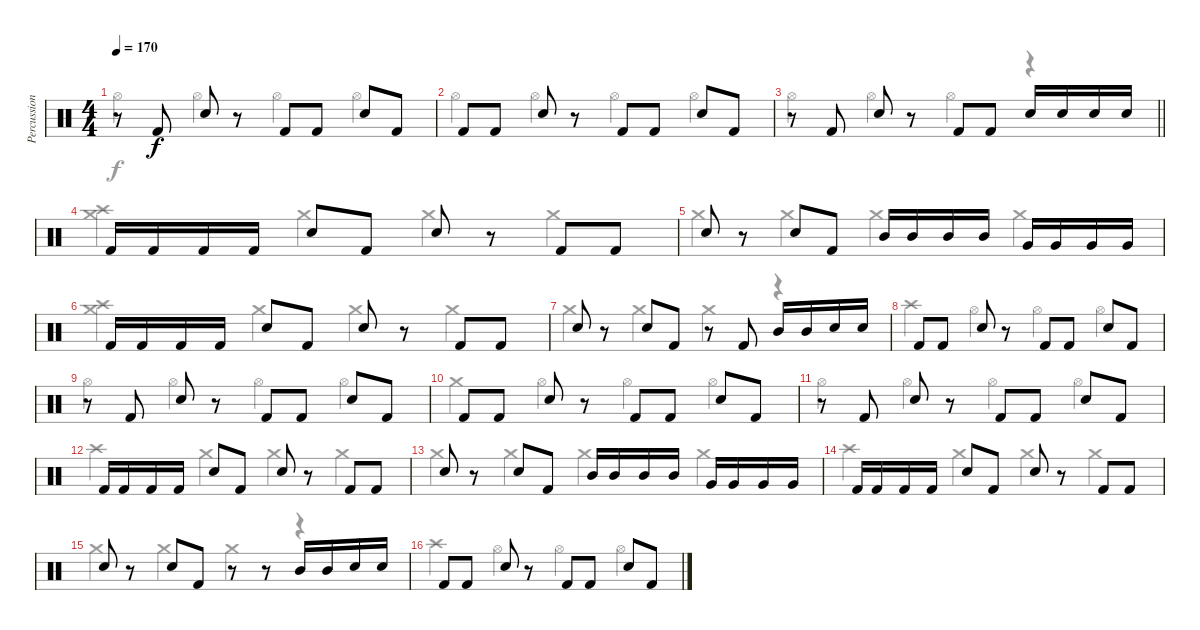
\track ("Percussion" "Percussion") {instrument percussion}
\staff {score}
\articulation defaults
\voice
\ts (4 4)
\tempo 170
\clef neutral
\ks c
r.8{dy f} "Kick (hit) 2".8 "Snare (hit) 2".8 r.8 "Kick (hit) 2".8 "Kick (hit) 2".8 "Snare (hit) 2".8 "Kick (hit) 2".8 |
"Kick (hit) 2".8 "Kick (hit) 2".8 "Snare (hit) 2".8 r.8 "Kick (hit) 2".8 "Kick (hit) 2".8 "Snare (hit) 2".8 "Kick (hit) 2".8 |
\barLineRight lightlight
r.8 "Kick (hit) 2".8 "Snare (hit) 2".8 r.8 "Kick (hit) 2".8 "Kick (hit) 2".8 "Snare (hit) 2".16 "Snare (hit) 2".16 "Snare (hit) 2".16 "Snare (hit) 2".16 |
"Kick (hit) 2".16 "Kick (hit) 2".16 "Kick (hit) 2".16 "Kick (hit) 2".16 "Snare (hit) 2".8 "Kick (hit) 2".8 "Snare (hit) 2".8 r.8 "Kick (hit) 2".8 "Kick (hit) 2".8 |
"Snare (hit) 2".8 r.8 "Snare (hit) 2".8 "Kick (hit) 2".8 "Mid Tom (hit)".16 "Mid Tom (hit)".16 "Mid Tom (hit)".16 "Mid Tom (hit)".16 "Very Low Tom (hit)".16 "Very Low Tom (hit)".16 "Very Low Tom (hit)".16 "Very Low Tom (hit)".16 |
"Kick (hit) 2".16 "Kick (hit) 2".16 "Kick (hit) 2".16 "Kick (hit) 2".16 "Snare (hit) 2".8 "Kick (hit) 2".8 "Snare (hit) 2".8 r.8 "Kick (hit) 2".8 "Kick (hit) 2".8 |
"Snare (hit) 2".8 r.8 "Snare (hit) 2".8 "Kick (hit) 2".8 r.8 "Kick (hit) 2".8 "Mid Tom (hit)".16 "Mid Tom (hit)".16 "Snare (hit) 2".16 "Snare (hit) 2".16 |
"Kick (hit) 2".8 "Kick (hit) 2".8 "Snare (hit) 2".8 r.8 "Kick (hit) 2".8 "Kick (hit) 2".8 "Snare (hit) 2".8 "Kick (hit) 2".8 |
r.8 "Kick (hit) 2".8 "Snare (hit) 2".8 r.8 "Kick (hit) 2".8 "Kick (hit) 2".8 "Snare (hit) 2".8 "Kick (hit) 2".8 |
"Kick (hit) 2".8 "Kick (hit) 2".8 "Snare (hit) 2".8 r.8 "Kick (hit) 2".8 "Kick (hit) 2".8 "Snare (hit) 2".8 "Kick (hit) 2".8 |
r.8 "Kick (hit) 2".8 "Snare (hit) 2".8 r.8 "Kick (hit) 2".8 "Kick (hit) 2".8 "Snare (hit) 2".8 "Kick (hit) 2".8 |
"Kick (hit) 2".16 "Kick (hit) 2".16 "Kick (hit) 2".16 "Kick (hit) 2".16 "Snare (hit) 2".8 "Kick (hit) 2".8 "Snare (hit) 2".8 r.8 "Kick (hit) 2".8 "Kick (hit) 2".8 |
"Snare (hit) 2".8 r.8 "Snare (hit) 2".8 "Kick (hit) 2".8 "Mid Tom (hit)".16 "Mid Tom (hit)".16 "Mid Tom (hit)".16 "Mid Tom (hit)".16 "Very Low Tom (hit)".16 "Very Low Tom (hit)".16 "Very Low Tom (hit)".16 "Very Low Tom (hit)".16 |
"Kick (hit) 2".16 "Kick (hit) 2".16 "Kick (hit) 2".16 "Kick (hit) 2".16 "Snare (hit) 2".8 "Kick (hit) 2".8 "Snare (hit) 2".8 r.8 "Kick (hit) 2".8 "Kick (hit) 2".8 |
"Snare (hit) 2".8 r.8 "Snare (hit) 2".8 "Kick (hit) 2".8 r.8 r.8 "Mid Tom (hit)".16 "Mid Tom (hit)".16 "Snare (hit) 2".16 "Snare (hit) 2".16 |
"Kick (hit) 2".8 "Kick (hit) 2".8 "Snare (hit) 2".8 r.8 "Kick (hit) 2".8 "Kick (hit) 2".8 "Snare (hit) 2".8 "Kick (hit) 2".8
\voice
\clef neutral
\ottava regular
\simile none
\ks c "Hi-Hat (open)".4{dy f} "Hi-Hat (open)".4 "Hi-Hat (open)".4 "Hi-Hat (open)".4
|
"Hi-Hat (open)".4 "Hi-Hat (open)".4 "Hi-Hat (open)".4 "Hi-Hat (open)".4 |
\barLineRight lightlight "Hi-Hat (open)".4 "Hi-Hat (open)".4 "Hi-Hat (open)".4
r.4 |
("Crash medium (hit)" "Crash high (hit)").4 "Crash medium (hit)".4 "Crash medium (hit)".4 "Crash medium (hit)".4 |
"Crash medium (hit)".4 "Crash medium (hit)".4 "Crash medium (hit)".4 "Crash medium (hit)".4 |
("Crash medium (hit)" "Crash high (hit)").4 "Crash medium (hit)".4 "Crash medium (hit)".4 "Crash medium (hit)".4 |
"Crash medium (hit)".4 "Crash medium (hit)".4 "Crash medium (hit)".4 r.4 |
"Crash high (hit)".4 "Hi-Hat (open)".4 "Hi-Hat (open)".4 "Hi-Hat (open)".4 |
"Hi-Hat (open)".4 "Hi-Hat (open)".4 "Hi-Hat (open)".4 "Hi-Hat (open)".4 |
"Crash medium (hit)".4 "Hi-Hat (open)".4 "Hi-Hat (open)".4 "Hi-Hat (open)".4 |
"Hi-Hat (open)".4 "Hi-Hat (open)".4 "Hi-Hat (open)".4 "Hi-Hat (open)".4 |
"Crash high (hit)".4 "Crash medium (hit)".4 "Crash medium (hit)".4 "Crash medium (hit)".4 |
"Crash medium (hit)".4 "Crash medium (hit)".4 "Crash medium (hit)".4 "Crash medium (hit)".4 |
"Crash high (hit)".4 "Crash medium (hit)".4 "Crash medium (hit)".4 "Crash medium (hit)".4 |
"Crash medium (hit)".4 "Crash medium (hit)".4 "Crash medium (hit)".4 r.4 |
"Crash high (hit)".4 "Hi-Hat (open)".4 "Hi-Hat (open)".4 "Hi-Hat (open)".4
